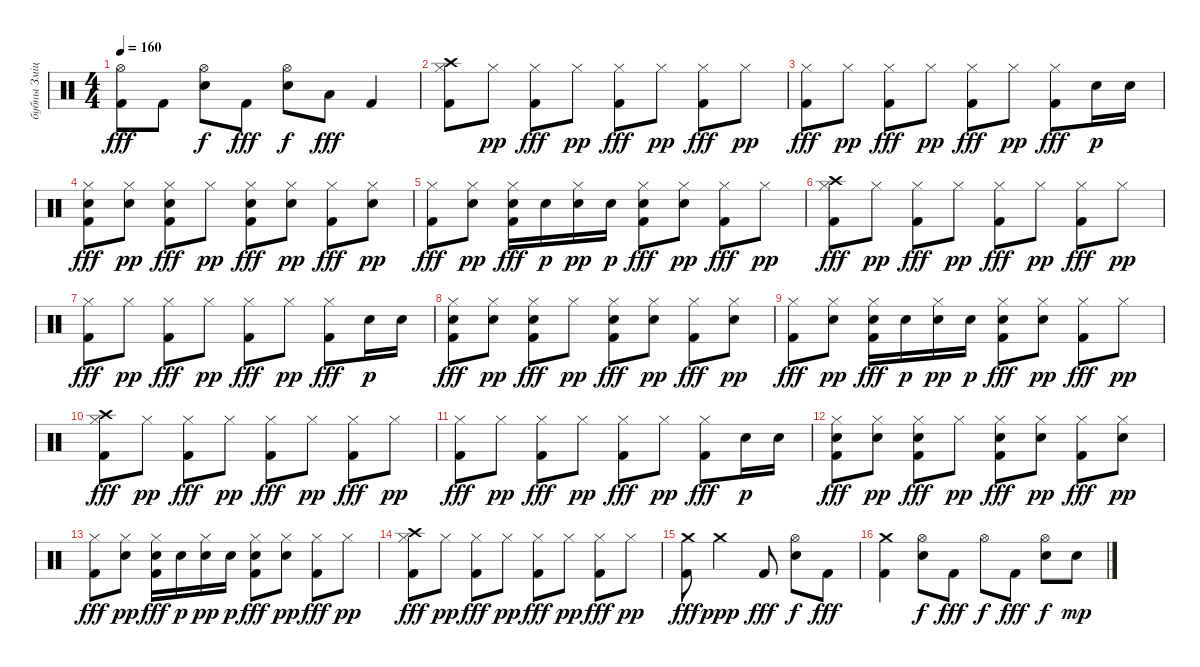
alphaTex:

\track ("бубны Змiцер" "бубны Змiц") {instrument percussion}
\staff {score}
\articulation defaults
\ts (4 4)
\tempo 160
\clef neutral
\ks c
("Hi-Hat (open)" "Kick (hit) 2").8{dy fff} "Kick (hit) 2".8 ("Hi-Hat (open)" "Electric Snare (hit)").8{dy f} "Kick (hit) 2".8{dy fff} ("Hi-Hat (open)" "Electric Snare (hit)").8{dy f} "Low Tom (hit)".8{dy fff} "Kick (hit) 2".4 |
("Crash high (hit)" "Hi-Hat (closed)" "Kick (hit) 2").8 "Hi-Hat (closed)".8{dy pp} ("Hi-Hat (closed)" "Kick (hit) 2").8{dy fff} "Hi-Hat (closed)".8{dy pp} ("Hi-Hat (closed)" "Kick (hit) 2").8{dy fff} "Hi-Hat (closed)".8{dy pp} ("Hi-Hat (closed)" "Kick (hit) 2").8{dy fff} "Hi-Hat (closed)".8{dy pp} |
("Hi-Hat (closed)" "Kick (hit) 2").8{dy fff} "Hi-Hat (closed)".8{dy pp} ("Hi-Hat (closed)" "Kick (hit) 2").8{dy fff} "Hi-Hat (closed)".8{dy pp} ("Hi-Hat (closed)" "Kick (hit) 2").8{dy fff} "Hi-Hat (closed)".8{dy pp} ("Hi-Hat (closed)" "Kick (hit) 2").8{dy fff} "Electric Snare (hit)".16{dy p} "Electric Snare (hit)".16 |
("Electric Snare (hit)" "Hi-Hat (closed)" "Kick (hit) 2").8{dy fff} ("Electric Snare (hit)" "Hi-Hat (closed)").8{dy pp} ("Electric Snare (hit)" "Hi-Hat (closed)" "Kick (hit) 2").8{dy fff} "Hi-Hat (closed)".8{dy pp} ("Electric Snare (hit)" "Hi-Hat (closed)" "Kick (hit) 2").8{dy fff} ("Electric Snare (hit)" "Hi-Hat (closed)").8{dy pp} ("Hi-Hat (closed)" "Kick (hit) 2").8{dy fff} ("Electric Snare (hit)" "Hi-Hat (closed)").8{dy pp} |
("Hi-Hat (closed)" "Kick (hit) 2").8{dy fff} ("Electric Snare (hit)" "Hi-Hat (closed)").8{dy pp} ("Electric Snare (hit)" "Hi-Hat (closed)" "Kick (hit) 2").16{dy fff} "Electric Snare (hit)".16{dy p} ("Electric Snare (hit)" "Hi-Hat (closed)").16{dy pp} "Electric Snare (hit)".16{dy p} ("Electric Snare (hit)" "Hi-Hat (closed)" "Kick (hit) 2").8{dy fff} ("Electric Snare (hit)" "Hi-Hat (closed)").8{dy pp} ("Hi-Hat (closed)" "Kick (hit) 2").8{dy fff} "Hi-Hat (closed)".8{dy pp} |
("Crash high (hit)" "Hi-Hat (closed)" "Kick (hit) 2").8{dy fff} "Hi-Hat (closed)".8{dy pp} ("Hi-Hat (closed)" "Kick (hit) 2").8{dy fff} "Hi-Hat (closed)".8{dy pp} ("Hi-Hat (closed)" "Kick (hit) 2").8{dy fff} "Hi-Hat (closed)".8{dy pp} ("Hi-Hat (closed)" "Kick (hit) 2").8{dy fff} "Hi-Hat (closed)".8{dy pp} |
("Hi-Hat (closed)" "Kick (hit) 2").8{dy fff} "Hi-Hat (closed)".8{dy pp} ("Hi-Hat (closed)" "Kick (hit) 2").8{dy fff} "Hi-Hat (closed)".8{dy pp} ("Hi-Hat (closed)" "Kick (hit) 2").8{dy fff} "Hi-Hat (closed)".8{dy pp} ("Hi-Hat (closed)" "Kick (hit) 2").8{dy fff} "Electric Snare (hit)".16{dy p} "Electric Snare (hit)".16 |
("Electric Snare (hit)" "Hi-Hat (closed)" "Kick (hit) 2").8{dy fff} ("Electric Snare (hit)" "Hi-Hat (closed)").8{dy pp} ("Electric Snare (hit)" "Hi-Hat (closed)" "Kick (hit) 2").8{dy fff} "Hi-Hat (closed)".8{dy pp} ("Electric Snare (hit)" "Hi-Hat (closed)" "Kick (hit) 2").8{dy fff} ("Electric Snare (hit)" "Hi-Hat (closed)").8{dy pp} ("Hi-Hat (closed)" "Kick (hit) 2").8{dy fff} ("Electric Snare (hit)" "Hi-Hat (closed)").8{dy pp} |
("Hi-Hat (closed)" "Kick (hit) 2").8{dy fff} ("Electric Snare (hit)" "Hi-Hat (closed)").8{dy pp} ("Electric Snare (hit)" "Hi-Hat (closed)" "Kick (hit) 2").16{dy fff} "Electric Snare (hit)".16{dy p} ("Electric Snare (hit)" "Hi-Hat (closed)").16{dy pp} "Electric Snare (hit)".16{dy p} ("Electric Snare (hit)" "Hi-Hat (closed)" "Kick (hit) 2").8{dy fff} ("Electric Snare (hit)" "Hi-Hat (closed)").8{dy pp} ("Hi-Hat (closed)" "Kick (hit) 2").8{dy fff} "Hi-Hat (closed)".8{dy pp} |
("Crash high (hit)" "Hi-Hat (closed)" "Kick (hit) 2").8{dy fff} "Hi-Hat (closed)".8{dy pp} ("Hi-Hat (closed)" "Kick (hit) 2").8{dy fff} "Hi-Hat (closed)".8{dy pp} ("Hi-Hat (closed)" "Kick (hit) 2").8{dy fff} "Hi-Hat (closed)".8{dy pp} ("Hi-Hat (closed)" "Kick (hit) 2").8{dy fff} "Hi-Hat (closed)".8{dy pp} |
("Hi-Hat (closed)" "Kick (hit) 2").8{dy fff} "Hi-Hat (closed)".8{dy pp} ("Hi-Hat (closed)" "Kick (hit) 2").8{dy fff} "Hi-Hat (closed)".8{dy pp} ("Hi-Hat (closed)" "Kick (hit) 2").8{dy fff} "Hi-Hat (closed)".8{dy pp} ("Hi-Hat (closed)" "Kick (hit) 2").8{dy fff} "Electric Snare (hit)".16{dy p} "Electric Snare (hit)".16 |
("Electric Snare (hit)" "Hi-Hat (closed)" "Kick (hit) 2").8{dy fff} ("Electric Snare (hit)" "Hi-Hat (closed)").8{dy pp} ("Electric Snare (hit)" "Hi-Hat (closed)" "Kick (hit) 2").8{dy fff} "Hi-Hat (closed)".8{dy pp} ("Electric Snare (hit)" "Hi-Hat (closed)" "Kick (hit) 2").8{dy fff} ("Electric Snare (hit)" "Hi-Hat (closed)").8{dy pp} ("Hi-Hat (closed)" "Kick (hit) 2").8{dy fff} ("Electric Snare (hit)" "Hi-Hat (closed)").8{dy pp} |
("Hi-Hat (closed)" "Kick (hit) 2").8{dy fff} ("Electric Snare (hit)" "Hi-Hat (closed)").8{dy pp} ("Electric Snare (hit)" "Hi-Hat (closed)" "Kick (hit) 2").16{dy fff} "Electric Snare (hit)".16{dy p} ("Electric Snare (hit)" "Hi-Hat (closed)").16{dy pp} "Electric Snare (hit)".16{dy p} ("Electric Snare (hit)" "Hi-Hat (closed)" "Kick (hit) 2").8{dy fff} ("Electric Snare (hit)" "Hi-Hat (closed)").8{dy pp} ("Hi-Hat (closed)" "Kick (hit) 2").8{dy fff} "Hi-Hat (closed)".8{dy pp} |
("Crash high (hit)" "Hi-Hat (closed)" "Kick (hit) 2").8{dy fff} "Hi-Hat (closed)".8{dy pp} ("Hi-Hat (closed)" "Kick (hit) 2").8{dy fff} "Hi-Hat (closed)".8{dy pp} ("Hi-Hat (closed)" "Kick (hit) 2").8{dy fff} "Hi-Hat (closed)".8{dy pp} ("Hi-Hat (closed)" "Kick (hit) 2").8{dy fff} "Hi-Hat (closed)".8{dy pp} |
("Crash medium (hit)" "Kick (hit) 2").8{dy fff} "Crash medium (hit)".2{dy ppp} "Kick (hit) 2".8{dy fff} ("Hi-Hat (open)" "Electric Snare (hit)").8{dy f} "Kick (hit) 2".8{dy fff} |
("Crash medium (hit)" "Kick (hit) 2").4 ("Hi-Hat (open)" "Electric Snare (hit)").8{dy f} "Kick (hit) 2".8{dy fff} "Hi-Hat (open)".8{dy f} "Kick (hit) 2".8{dy fff} ("Hi-Hat (open)" "Electric Snare (hit)").8{dy f} "Electric Snare (hit)".8{dy mp}
